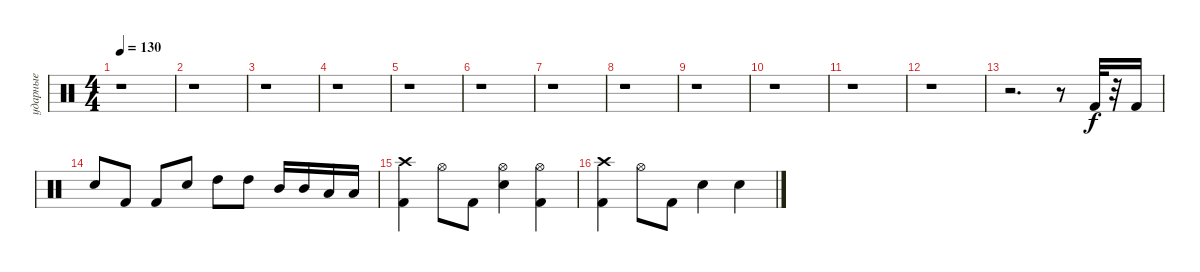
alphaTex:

\track ("ударные" "ударные") {instrument percussion}
\staff {score}
\articulation defaults
\ts (4 4)
\tempo 130
\clef neutral
\ks c
r.1{dy f} |
r.1 |
r.1 |
r.1 |
r.1 |
r.1 |
r.1 |
r.1 |
r.1 |
r.1 |
r.1 |
r.1 |
r.2{d} r.8 "Kick (hit) 2".32 r.32 "Kick (hit) 2".16 |
"Electric Snare (hit)".8 "Kick (hit) 2".8 "Kick (hit) 2".8 "Electric Snare (hit)".8 "High Tom (hit)".8 "High Tom (hit)".8 "Mid Tom (hit)".16 "Mid Tom (hit)".16 "Low Tom (hit)".16 "Low Tom (hit)".16 |
("Crash high (hit)" "Kick (hit) 2").4 "Hi-Hat (open)".8 "Kick (hit) 2".8 ("Hi-Hat (open)" "Electric Snare (hit)").4 ("Kick (hit) 2" "Hi-Hat (open)").4 |
("Crash high (hit)" "Kick (hit) 2").4 "Hi-Hat (open)".8 "Kick (hit) 2".8 "Electric Snare (hit)".4 "Electric Snare (hit)".4
